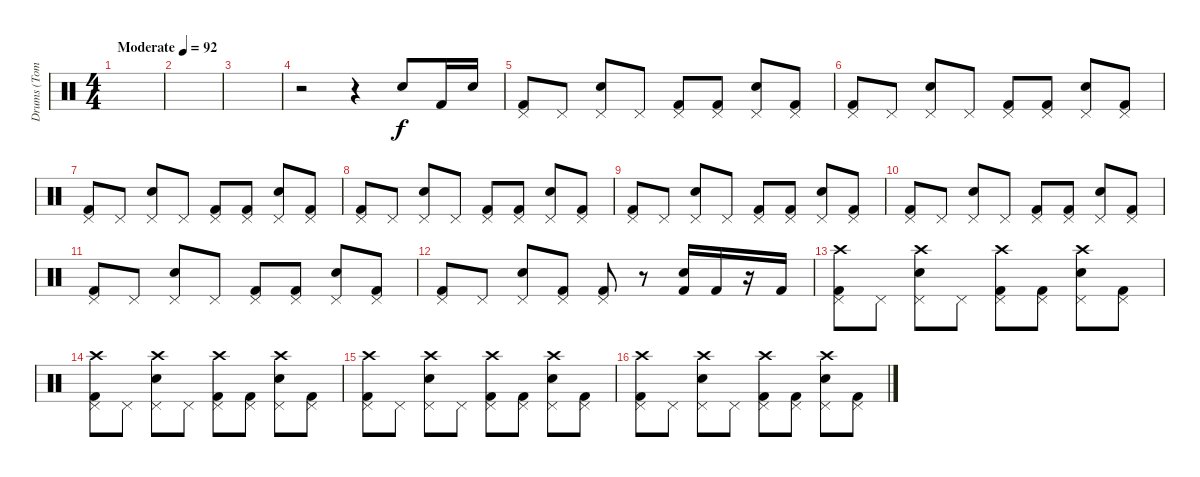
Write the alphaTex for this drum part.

\track ("Drums (Tommy?)" "Drums (Tom") {instrument percussion bank 7}
\staff {score}
\articulation defaults
\ts (4 4)
\tempo (92 "Moderate")
\clef neutral
\ks c
|
|
|
r.2 r.4 "Snare (hit) 2".8 "Kick (hit) 2".16 "Snare (hit) 2".16 |
("Pedal Hi-Hat (hit)" "Kick (hit) 2").8 "Pedal Hi-Hat (hit)".8 ("Pedal Hi-Hat (hit)" "Electric Snare (hit)").8 "Pedal Hi-Hat (hit)".8 ("Pedal Hi-Hat (hit)" "Kick (hit) 2").8 ("Pedal Hi-Hat (hit)" "Kick (hit) 2").8 ("Pedal Hi-Hat (hit)" "Electric Snare (hit)").8 ("Pedal Hi-Hat (hit)" "Kick (hit) 2").8 |
("Pedal Hi-Hat (hit)" "Kick (hit) 2").8 "Pedal Hi-Hat (hit)".8 ("Pedal Hi-Hat (hit)" "Electric Snare (hit)").8 "Pedal Hi-Hat (hit)".8 ("Pedal Hi-Hat (hit)" "Kick (hit) 2").8 ("Pedal Hi-Hat (hit)" "Kick (hit) 2").8 ("Pedal Hi-Hat (hit)" "Electric Snare (hit)").8 ("Pedal Hi-Hat (hit)" "Kick (hit) 2").8 |
("Pedal Hi-Hat (hit)" "Kick (hit) 2").8 "Pedal Hi-Hat (hit)".8 ("Pedal Hi-Hat (hit)" "Electric Snare (hit)").8 "Pedal Hi-Hat (hit)".8 ("Pedal Hi-Hat (hit)" "Kick (hit) 2").8 ("Pedal Hi-Hat (hit)" "Kick (hit) 2").8 ("Pedal Hi-Hat (hit)" "Electric Snare (hit)").8 ("Pedal Hi-Hat (hit)" "Kick (hit) 2").8 |
("Pedal Hi-Hat (hit)" "Kick (hit) 2").8 "Pedal Hi-Hat (hit)".8 ("Pedal Hi-Hat (hit)" "Electric Snare (hit)").8 "Pedal Hi-Hat (hit)".8 ("Pedal Hi-Hat (hit)" "Kick (hit) 2").8 ("Pedal Hi-Hat (hit)" "Kick (hit) 2").8 ("Pedal Hi-Hat (hit)" "Electric Snare (hit)").8 ("Pedal Hi-Hat (hit)" "Kick (hit) 2").8 |
("Pedal Hi-Hat (hit)" "Kick (hit) 2").8 "Pedal Hi-Hat (hit)".8 ("Pedal Hi-Hat (hit)" "Electric Snare (hit)").8 "Pedal Hi-Hat (hit)".8 ("Pedal Hi-Hat (hit)" "Kick (hit) 2").8 ("Pedal Hi-Hat (hit)" "Kick (hit) 2").8 ("Pedal Hi-Hat (hit)" "Electric Snare (hit)").8 ("Pedal Hi-Hat (hit)" "Kick (hit) 2").8 |
("Pedal Hi-Hat (hit)" "Kick (hit) 2").8 "Pedal Hi-Hat (hit)".8 ("Pedal Hi-Hat (hit)" "Electric Snare (hit)").8 "Pedal Hi-Hat (hit)".8 ("Pedal Hi-Hat (hit)" "Kick (hit) 2").8 ("Pedal Hi-Hat (hit)" "Kick (hit) 2").8 ("Pedal Hi-Hat (hit)" "Electric Snare (hit)").8 ("Pedal Hi-Hat (hit)" "Kick (hit) 2").8 |
("Pedal Hi-Hat (hit)" "Kick (hit) 2").8 "Pedal Hi-Hat (hit)".8 ("Pedal Hi-Hat (hit)" "Electric Snare (hit)").8 "Pedal Hi-Hat (hit)".8 ("Pedal Hi-Hat (hit)" "Kick (hit) 2").8 ("Pedal Hi-Hat (hit)" "Kick (hit) 2").8 ("Pedal Hi-Hat (hit)" "Electric Snare (hit)").8 ("Pedal Hi-Hat (hit)" "Kick (hit) 2").8 |
("Pedal Hi-Hat (hit)" "Kick (hit) 2").8 "Pedal Hi-Hat (hit)".8 ("Pedal Hi-Hat (hit)" "Electric Snare (hit)").8 ("Pedal Hi-Hat (hit)" "Kick (hit) 2").8 ("Pedal Hi-Hat (hit)" "Kick (hit) 2").8 r.8 ("Electric Snare (hit)" "Kick (hit) 2").16 "Kick (hit) 2".16 r.16 "Kick (hit) 2".16 |
("Crash high (hit)" "Pedal Hi-Hat (hit)" "Kick (hit) 2").8 "Pedal Hi-Hat (hit)".8 ("Crash high (hit)" "Pedal Hi-Hat (hit)" "Electric Snare (hit)").8 "Pedal Hi-Hat (hit)".8 ("Crash high (hit)" "Pedal Hi-Hat (hit)" "Kick (hit) 2").8 ("Pedal Hi-Hat (hit)" "Kick (hit) 2").8 ("Crash high (hit)" "Pedal Hi-Hat (hit)" "Electric Snare (hit)").8 ("Pedal Hi-Hat (hit)" "Kick (hit) 2").8 |
("Crash high (hit)" "Pedal Hi-Hat (hit)" "Kick (hit) 2").8 "Pedal Hi-Hat (hit)".8 ("Crash high (hit)" "Pedal Hi-Hat (hit)" "Electric Snare (hit)").8 "Pedal Hi-Hat (hit)".8 ("Crash high (hit)" "Pedal Hi-Hat (hit)" "Kick (hit) 2").8 ("Pedal Hi-Hat (hit)" "Kick (hit) 2").8 ("Crash high (hit)" "Pedal Hi-Hat (hit)" "Electric Snare (hit)").8 ("Pedal Hi-Hat (hit)" "Kick (hit) 2").8 |
("Crash high (hit)" "Pedal Hi-Hat (hit)" "Kick (hit) 2").8 "Pedal Hi-Hat (hit)".8 ("Crash high (hit)" "Pedal Hi-Hat (hit)" "Electric Snare (hit)").8 "Pedal Hi-Hat (hit)".8 ("Crash high (hit)" "Pedal Hi-Hat (hit)" "Kick (hit) 2").8 ("Pedal Hi-Hat (hit)" "Kick (hit) 2").8 ("Crash high (hit)" "Pedal Hi-Hat (hit)" "Electric Snare (hit)").8 ("Pedal Hi-Hat (hit)" "Kick (hit) 2").8 |
("Crash high (hit)" "Pedal Hi-Hat (hit)" "Kick (hit) 2").8 "Pedal Hi-Hat (hit)".8 ("Crash high (hit)" "Pedal Hi-Hat (hit)" "Electric Snare (hit)").8 "Pedal Hi-Hat (hit)".8 ("Crash high (hit)" "Pedal Hi-Hat (hit)" "Kick (hit) 2").8 ("Pedal Hi-Hat (hit)" "Kick (hit) 2").8 ("Crash high (hit)" "Pedal Hi-Hat (hit)" "Electric Snare (hit)").8 ("Pedal Hi-Hat (hit)" "Kick (hit) 2").8
